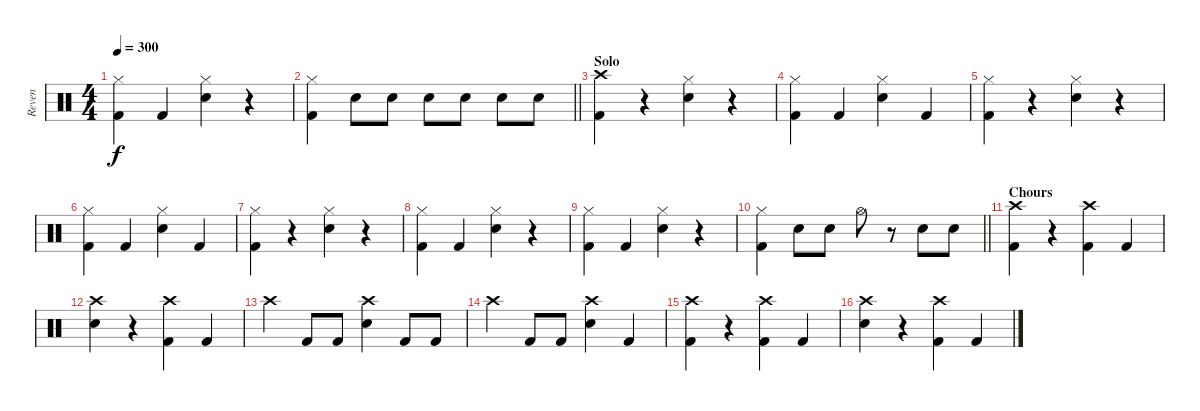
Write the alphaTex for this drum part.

\track ("Reven" "Reven") {instrument percussion}
\staff {score}
\articulation defaults
\ts (4 4)
\tempo 300
\clef neutral
\ks c
("Hi-Hat (closed)" "Kick (hit) 2").4{dy f} "Kick (hit) 2".4 ("Hi-Hat (closed)" "Electric Snare (hit)").4 r.4 |
\barLineRight lightlight
("Hi-Hat (closed)" "Kick (hit) 2").4 "Electric Snare (hit)".8 "Electric Snare (hit)".8 "Electric Snare (hit)".8 "Electric Snare (hit)".8 "Electric Snare (hit)".8 "Electric Snare (hit)".8 |
\section ("" "Solo")
("Crash high (hit)" "Kick (hit) 2").4 r.4 ("Hi-Hat (closed)" "Electric Snare (hit)").4 r.4 |
("Hi-Hat (closed)" "Kick (hit) 2").4 "Kick (hit) 2".4 ("Hi-Hat (closed)" "Electric Snare (hit)").4 "Kick (hit) 2".4 |
("Hi-Hat (closed)" "Kick (hit) 2").4 r.4 ("Hi-Hat (closed)" "Electric Snare (hit)").4 r.4 |
("Hi-Hat (closed)" "Kick (hit) 2").4 "Kick (hit) 2".4 ("Hi-Hat (closed)" "Electric Snare (hit)").4 "Kick (hit) 2".4 |
("Hi-Hat (closed)" "Kick (hit) 2").4 r.4 ("Hi-Hat (closed)" "Electric Snare (hit)").4 r.4 |
("Hi-Hat (closed)" "Kick (hit) 2").4 "Kick (hit) 2".4 ("Hi-Hat (closed)" "Electric Snare (hit)").4 r.4 |
("Hi-Hat (closed)" "Kick (hit) 2").4 "Kick (hit) 2".4 ("Hi-Hat (closed)" "Electric Snare (hit)").4 r.4 |
\barLineRight lightlight
("Hi-Hat (closed)" "Kick (hit) 2").4 "Electric Snare (hit)".8 "Electric Snare (hit)".8 "Hi-Hat (open)".8 r.8 "Electric Snare (hit)".8 "Electric Snare (hit)".8 |
\section ("" "Chours")
("Crash high (hit)" "Kick (hit) 2").4 r.4 ("Crash high (hit)" "Kick (hit) 2").4 "Kick (hit) 2".4 |
("Crash high (hit)" "Electric Snare (hit)").4 r.4 ("Crash high (hit)" "Kick (hit) 2").4 "Kick (hit) 2".4 |
"Crash high (hit)".4 "Kick (hit) 2".8 "Kick (hit) 2".8 ("Crash high (hit)" "Electric Snare (hit)").4 "Kick (hit) 2".8 "Kick (hit) 2".8 |
"Crash high (hit)".4 "Kick (hit) 2".8 "Kick (hit) 2".8 ("Crash high (hit)" "Electric Snare (hit)").4 "Kick (hit) 2".4 |
("Crash high (hit)" "Kick (hit) 2").4 r.4 ("Crash high (hit)" "Kick (hit) 2").4 "Kick (hit) 2".4 |
("Crash high (hit)" "Electric Snare (hit)").4 r.4 ("Crash high (hit)" "Kick (hit) 2").4 "Kick (hit) 2".4
